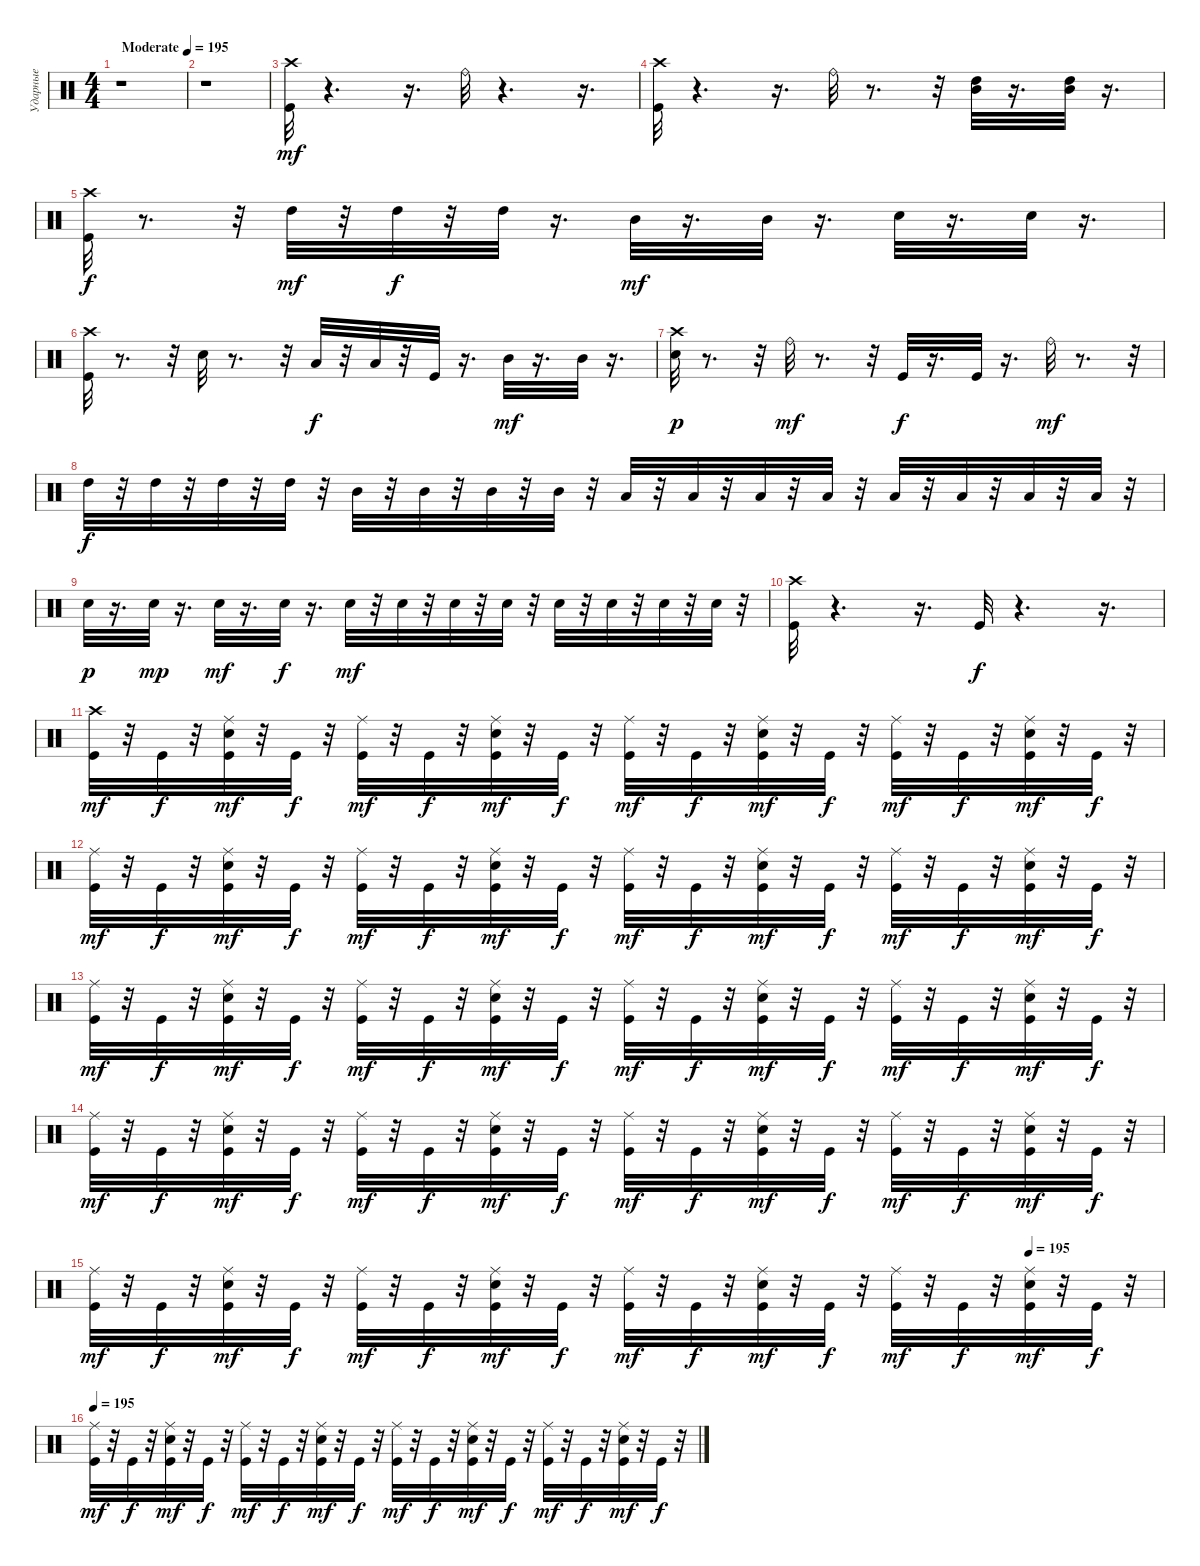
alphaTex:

\track ("Ударные" "Ударные") {instrument percussion}
\staff {score}
\articulation defaults
\ts (4 4)
\tempo (195 "Moderate")
\clef neutral
\ks c
r.1{dy mf} |
r.1 |
("Kick (hit)" "Crash high (hit)").32 r.4{d} r.16{d} "Ride (bell)".32 r.4{d} r.16{d} |
("Kick (hit)" "Crash high (hit)").32 r.4{d} r.16{d} "Ride (bell)".32 r.8{d} r.32 ("Mid Tom (hit)" "High Tom (hit)").32 r.16{d} ("Mid Tom (hit)" "High Tom (hit)").32 r.16{d} |
("Crash high (hit)" "Kick (hit)").32{dy f} r.8{d} r.32 "High Tom (hit)".32{dy mf} r.32 "High Tom (hit)".32{dy f} r.32 "High Tom (hit)".32 r.16{d} "Mid Tom (hit)".32{dy mf} r.16{d} "Mid Tom (hit)".32 r.16{d} "Electric Snare (hit)".32 r.16{d} "Electric Snare (hit)".32 r.16{d} |
("Crash high (hit)" "Kick (hit)").32 r.8{d} r.32 "Electric Snare (hit)".32 r.8{d} r.32 "Low Tom (hit)".32{dy f} r.32 "Low Tom (hit)".32 r.32 "Kick (hit)".32 r.16{d} "Mid Tom (hit)".32{dy mf} r.16{d} "Mid Tom (hit)".32 r.16{d} |
("Crash high (hit)" "Electric Snare (hit)").32{dy p} r.8{d} r.32 "Ride (bell)".32{dy mf} r.8{d} r.32 "Kick (hit)".32{dy f} r.16{d} "Kick (hit)".32 r.16{d} "Ride (bell)".32{dy mf} r.8{d} r.32 |
"High Tom (hit)".32{dy f} r.32 "High Tom (hit)".32 r.32 "High Tom (hit)".32 r.32 "High Tom (hit)".32 r.32 "Mid Tom (hit)".32 r.32 "Mid Tom (hit)".32 r.32 "Mid Tom (hit)".32 r.32 "Mid Tom (hit)".32 r.32 "Low Tom (hit)".32 r.32 "Low Tom (hit)".32 r.32 "Low Tom (hit)".32 r.32 "Low Tom (hit)".32 r.32 "Low Floor Tom (hit)".32 r.32 "Low Floor Tom (hit)".32 r.32 "Low Floor Tom (hit)".32 r.32 "Low Floor Tom (hit)".32 r.32 |
"Electric Snare (hit)".32{dy p} r.16{d} "Electric Snare (hit)".32{dy mp} r.16{d} "Electric Snare (hit)".32{dy mf} r.16{d} "Electric Snare (hit)".32{dy f} r.16{d} "Electric Snare (hit)".32{dy mf} r.32 "Electric Snare (hit)".32 r.32 "Electric Snare (hit)".32 r.32 "Electric Snare (hit)".32 r.32 "Electric Snare (hit)".32 r.32 "Electric Snare (hit)".32 r.32 "Electric Snare (hit)".32 r.32 "Electric Snare (hit)".32 r.32 |
("Crash high (hit)" "Kick (hit)").32 r.4{d} r.16{d} "Kick (hit)".32{dy f} r.4{d} r.16{d} |
("Crash high (hit)" "Kick (hit)").32{dy mf} r.32 "Kick (hit)".32{dy f} r.32 ("Electric Snare (hit)" "Ride (middle)" "Kick (hit)").32{dy mf} r.32 "Kick (hit)".32{dy f} r.32 ("Ride (middle)" "Kick (hit)").32{dy mf} r.32 "Kick (hit)".32{dy f} r.32 ("Ride (middle)" "Kick (hit)" "Electric Snare (hit)").32{dy mf} r.32 "Kick (hit)".32{dy f} r.32 ("Ride (middle)" "Kick (hit)").32{dy mf} r.32 "Kick (hit)".32{dy f} r.32 ("Ride (middle)" "Kick (hit)" "Electric Snare (hit)").32{dy mf} r.32 "Kick (hit)".32{dy f} r.32 ("Ride (middle)" "Kick (hit)").32{dy mf} r.32 "Kick (hit)".32{dy f} r.32 ("Electric Snare (hit)" "Ride (middle)" "Kick (hit)").32{dy mf} r.32 "Kick (hit)".32{dy f} r.32 |
("Ride (middle)" "Kick (hit)").32{dy mf} r.32 "Kick (hit)".32{dy f} r.32 ("Electric Snare (hit)" "Ride (middle)" "Kick (hit)").32{dy mf} r.32 "Kick (hit)".32{dy f} r.32 ("Ride (middle)" "Kick (hit)").32{dy mf} r.32 "Kick (hit)".32{dy f} r.32 ("Ride (middle)" "Kick (hit)" "Electric Snare (hit)").32{dy mf} r.32 "Kick (hit)".32{dy f} r.32 ("Ride (middle)" "Kick (hit)").32{dy mf} r.32 "Kick (hit)".32{dy f} r.32 ("Ride (middle)" "Kick (hit)" "Electric Snare (hit)").32{dy mf} r.32 "Kick (hit)".32{dy f} r.32 ("Ride (middle)" "Kick (hit)").32{dy mf} r.32 "Kick (hit)".32{dy f} r.32 ("Electric Snare (hit)" "Ride (middle)" "Kick (hit)").32{dy mf} r.32 "Kick (hit)".32{dy f} r.32 |
("Ride (middle)" "Kick (hit)").32{dy mf} r.32 "Kick (hit)".32{dy f} r.32 ("Electric Snare (hit)" "Ride (middle)" "Kick (hit)").32{dy mf} r.32 "Kick (hit)".32{dy f} r.32 ("Ride (middle)" "Kick (hit)").32{dy mf} r.32 "Kick (hit)".32{dy f} r.32 ("Ride (middle)" "Kick (hit)" "Electric Snare (hit)").32{dy mf} r.32 "Kick (hit)".32{dy f} r.32 ("Ride (middle)" "Kick (hit)").32{dy mf} r.32 "Kick (hit)".32{dy f} r.32 ("Ride (middle)" "Kick (hit)" "Electric Snare (hit)").32{dy mf} r.32 "Kick (hit)".32{dy f} r.32 ("Ride (middle)" "Kick (hit)").32{dy mf} r.32 "Kick (hit)".32{dy f} r.32 ("Electric Snare (hit)" "Ride (middle)" "Kick (hit)").32{dy mf} r.32 "Kick (hit)".32{dy f} r.32 |
("Ride (middle)" "Kick (hit)").32{dy mf} r.32 "Kick (hit)".32{dy f} r.32 ("Electric Snare (hit)" "Ride (middle)" "Kick (hit)").32{dy mf} r.32 "Kick (hit)".32{dy f} r.32 ("Ride (middle)" "Kick (hit)").32{dy mf} r.32 "Kick (hit)".32{dy f} r.32 ("Ride (middle)" "Kick (hit)" "Electric Snare (hit)").32{dy mf} r.32 "Kick (hit)".32{dy f} r.32 ("Ride (middle)" "Kick (hit)").32{dy mf} r.32 "Kick (hit)".32{dy f} r.32 ("Ride (middle)" "Kick (hit)" "Electric Snare (hit)").32{dy mf} r.32 "Kick (hit)".32{dy f} r.32 ("Ride (middle)" "Kick (hit)").32{dy mf} r.32 "Kick (hit)".32{dy f} r.32 ("Electric Snare (hit)" "Ride (middle)" "Kick (hit)").32{dy mf} r.32 "Kick (hit)".32{dy f} r.32 |
\tempo (195 0.875)
("Ride (middle)" "Kick (hit)").32{dy mf} r.32 "Kick (hit)".32{dy f} r.32 ("Electric Snare (hit)" "Ride (middle)" "Kick (hit)").32{dy mf} r.32 "Kick (hit)".32{dy f} r.32 ("Ride (middle)" "Kick (hit)").32{dy mf} r.32 "Kick (hit)".32{dy f} r.32 ("Ride (middle)" "Kick (hit)" "Electric Snare (hit)").32{dy mf} r.32 "Kick (hit)".32{dy f} r.32 ("Ride (middle)" "Kick (hit)").32{dy mf} r.32 "Kick (hit)".32{dy f} r.32 ("Ride (middle)" "Kick (hit)" "Electric Snare (hit)").32{dy mf} r.32 "Kick (hit)".32{dy f} r.32 ("Ride (middle)" "Kick (hit)").32{dy mf} r.32 "Kick (hit)".32{dy f} r.32 ("Electric Snare (hit)" "Ride (middle)" "Kick (hit)").32{dy mf} r.32 "Kick (hit)".32{dy f} r.32 |
\tempo 195
("Ride (middle)" "Kick (hit)").32{dy mf} r.32 "Kick (hit)".32{dy f} r.32 ("Electric Snare (hit)" "Ride (middle)" "Kick (hit)").32{dy mf} r.32 "Kick (hit)".32{dy f} r.32 ("Ride (middle)" "Kick (hit)").32{dy mf} r.32 "Kick (hit)".32{dy f} r.32 ("Ride (middle)" "Kick (hit)" "Electric Snare (hit)").32{dy mf} r.32 "Kick (hit)".32{dy f} r.32 ("Ride (middle)" "Kick (hit)").32{dy mf} r.32 "Kick (hit)".32{dy f} r.32 ("Ride (middle)" "Kick (hit)" "Electric Snare (hit)").32{dy mf} r.32 "Kick (hit)".32{dy f} r.32 ("Ride (middle)" "Kick (hit)").32{dy mf} r.32 "Kick (hit)".32{dy f} r.32 ("Electric Snare (hit)" "Ride (middle)" "Kick (hit)").32{dy mf} r.32 "Kick (hit)".32{dy f} r.32
